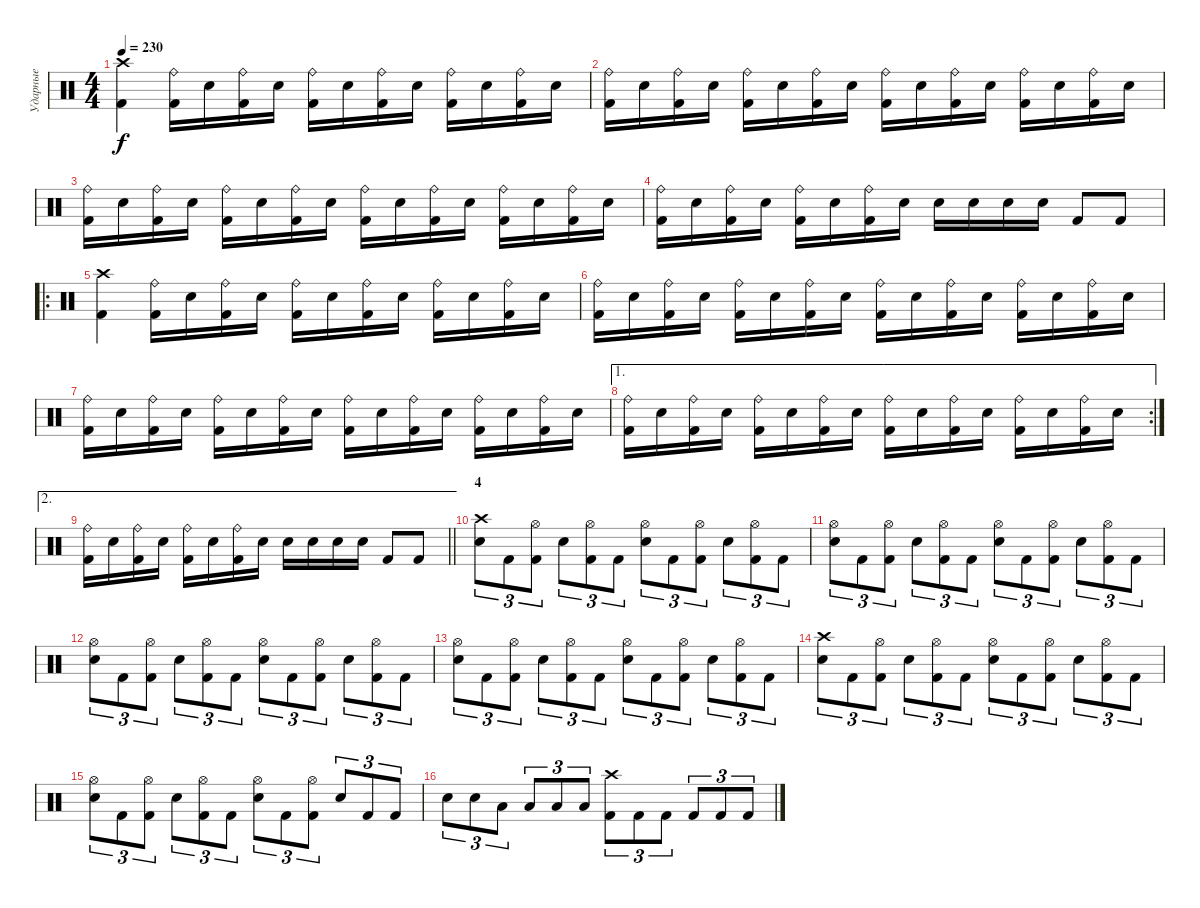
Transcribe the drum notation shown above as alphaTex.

\track ("Ударные" "Ударные") {instrument percussion}
\staff {score}
\articulation defaults
\ts (4 4)
\tempo 230
\clef neutral
\ks c
("Crash high (hit)" "Kick (hit) 2").4{dy f} ("Ride (bell)" "Kick (hit) 2").16 "Snare (hit) 2".16 ("Ride (bell)" "Kick (hit) 2").16 "Snare (hit) 2".16 ("Ride (bell)" "Kick (hit) 2").16 "Snare (hit) 2".16 ("Ride (bell)" "Kick (hit) 2").16 "Snare (hit) 2".16 ("Ride (bell)" "Kick (hit) 2").16 "Snare (hit) 2".16 ("Ride (bell)" "Kick (hit) 2").16 "Snare (hit) 2".16 |
("Ride (bell)" "Kick (hit) 2").16 "Snare (hit) 2".16 ("Ride (bell)" "Kick (hit) 2").16 "Snare (hit) 2".16 ("Ride (bell)" "Kick (hit) 2").16 "Snare (hit) 2".16 ("Ride (bell)" "Kick (hit) 2").16 "Snare (hit) 2".16 ("Ride (bell)" "Kick (hit) 2").16 "Snare (hit) 2".16 ("Ride (bell)" "Kick (hit) 2").16 "Snare (hit) 2".16 ("Ride (bell)" "Kick (hit) 2").16 "Snare (hit) 2".16 ("Ride (bell)" "Kick (hit) 2").16 "Snare (hit) 2".16 |
("Ride (bell)" "Kick (hit) 2").16 "Snare (hit) 2".16 ("Ride (bell)" "Kick (hit) 2").16 "Snare (hit) 2".16 ("Ride (bell)" "Kick (hit) 2").16 "Snare (hit) 2".16 ("Ride (bell)" "Kick (hit) 2").16 "Snare (hit) 2".16 ("Ride (bell)" "Kick (hit) 2").16 "Snare (hit) 2".16 ("Ride (bell)" "Kick (hit) 2").16 "Snare (hit) 2".16 ("Ride (bell)" "Kick (hit) 2").16 "Snare (hit) 2".16 ("Ride (bell)" "Kick (hit) 2").16 "Snare (hit) 2".16 |
("Ride (bell)" "Kick (hit) 2").16 "Snare (hit) 2".16 ("Ride (bell)" "Kick (hit) 2").16 "Snare (hit) 2".16 ("Ride (bell)" "Kick (hit) 2").16 "Snare (hit) 2".16 ("Ride (bell)" "Kick (hit) 2").16 "Snare (hit) 2".16 "Snare (hit) 2".16 "Snare (hit) 2".16 "Snare (hit) 2".16 "Snare (hit) 2".16 "Kick (hit) 2".8 "Kick (hit) 2".8 |
\ro
("Crash high (hit)" "Kick (hit) 2").4 ("Ride (bell)" "Kick (hit) 2").16 "Snare (hit) 2".16 ("Ride (bell)" "Kick (hit) 2").16 "Snare (hit) 2".16 ("Ride (bell)" "Kick (hit) 2").16 "Snare (hit) 2".16 ("Ride (bell)" "Kick (hit) 2").16 "Snare (hit) 2".16 ("Ride (bell)" "Kick (hit) 2").16 "Snare (hit) 2".16 ("Ride (bell)" "Kick (hit) 2").16 "Snare (hit) 2".16 |
("Ride (bell)" "Kick (hit) 2").16 "Snare (hit) 2".16 ("Ride (bell)" "Kick (hit) 2").16 "Snare (hit) 2".16 ("Ride (bell)" "Kick (hit) 2").16 "Snare (hit) 2".16 ("Ride (bell)" "Kick (hit) 2").16 "Snare (hit) 2".16 ("Ride (bell)" "Kick (hit) 2").16 "Snare (hit) 2".16 ("Ride (bell)" "Kick (hit) 2").16 "Snare (hit) 2".16 ("Ride (bell)" "Kick (hit) 2").16 "Snare (hit) 2".16 ("Ride (bell)" "Kick (hit) 2").16 "Snare (hit) 2".16 |
("Ride (bell)" "Kick (hit) 2").16 "Snare (hit) 2".16 ("Ride (bell)" "Kick (hit) 2").16 "Snare (hit) 2".16 ("Ride (bell)" "Kick (hit) 2").16 "Snare (hit) 2".16 ("Ride (bell)" "Kick (hit) 2").16 "Snare (hit) 2".16 ("Ride (bell)" "Kick (hit) 2").16 "Snare (hit) 2".16 ("Ride (bell)" "Kick (hit) 2").16 "Snare (hit) 2".16 ("Ride (bell)" "Kick (hit) 2").16 "Snare (hit) 2".16 ("Ride (bell)" "Kick (hit) 2").16 "Snare (hit) 2".16 |
\ae 1
\rc 2
("Ride (bell)" "Kick (hit) 2").16 "Snare (hit) 2".16 ("Ride (bell)" "Kick (hit) 2").16 "Snare (hit) 2".16 ("Ride (bell)" "Kick (hit) 2").16 "Snare (hit) 2".16 ("Ride (bell)" "Kick (hit) 2").16 "Snare (hit) 2".16 ("Ride (bell)" "Kick (hit) 2").16 "Snare (hit) 2".16 ("Ride (bell)" "Kick (hit) 2").16 "Snare (hit) 2".16 ("Ride (bell)" "Kick (hit) 2").16 "Snare (hit) 2".16 ("Ride (bell)" "Kick (hit) 2").16 "Snare (hit) 2".16 |
\ae 2
\barLineRight lightlight
("Ride (bell)" "Kick (hit) 2").16 "Snare (hit) 2".16 ("Ride (bell)" "Kick (hit) 2").16 "Snare (hit) 2".16 ("Ride (bell)" "Kick (hit) 2").16 "Snare (hit) 2".16 ("Ride (bell)" "Kick (hit) 2").16 "Snare (hit) 2".16 "Snare (hit) 2".16 "Snare (hit) 2".16 "Snare (hit) 2".16 "Snare (hit) 2".16 "Kick (hit) 2".8 "Kick (hit) 2".8 |
\section ("" "4")
("Crash high (hit)" "Snare (hit) 2").8{tu (3 2)} "Kick (hit) 2".8{tu (3 2)} ("Hi-Hat (open)" "Kick (hit) 2").8{tu (3 2)} "Snare (hit) 2".8{tu (3 2)} ("Hi-Hat (open)" "Kick (hit) 2").8{tu (3 2)} "Kick (hit) 2".8{tu (3 2)} ("Hi-Hat (open)" "Snare (hit) 2").8{tu (3 2)} "Kick (hit) 2".8{tu (3 2)} ("Hi-Hat (open)" "Kick (hit) 2").8{tu (3 2)} "Snare (hit) 2".8{tu (3 2)} ("Hi-Hat (open)" "Kick (hit) 2").8{tu (3 2)} "Kick (hit) 2".8{tu (3 2)} |
("Hi-Hat (open)" "Snare (hit) 2").8{tu (3 2)} "Kick (hit) 2".8{tu (3 2)} ("Hi-Hat (open)" "Kick (hit) 2").8{tu (3 2)} "Snare (hit) 2".8{tu (3 2)} ("Hi-Hat (open)" "Kick (hit) 2").8{tu (3 2)} "Kick (hit) 2".8{tu (3 2)} ("Hi-Hat (open)" "Snare (hit) 2").8{tu (3 2)} "Kick (hit) 2".8{tu (3 2)} ("Hi-Hat (open)" "Kick (hit) 2").8{tu (3 2)} "Snare (hit) 2".8{tu (3 2)} ("Hi-Hat (open)" "Kick (hit) 2").8{tu (3 2)} "Kick (hit) 2".8{tu (3 2)} |
("Hi-Hat (open)" "Snare (hit) 2").8{tu (3 2)} "Kick (hit) 2".8{tu (3 2)} ("Hi-Hat (open)" "Kick (hit) 2").8{tu (3 2)} "Snare (hit) 2".8{tu (3 2)} ("Hi-Hat (open)" "Kick (hit) 2").8{tu (3 2)} "Kick (hit) 2".8{tu (3 2)} ("Hi-Hat (open)" "Snare (hit) 2").8{tu (3 2)} "Kick (hit) 2".8{tu (3 2)} ("Hi-Hat (open)" "Kick (hit) 2").8{tu (3 2)} "Snare (hit) 2".8{tu (3 2)} ("Hi-Hat (open)" "Kick (hit) 2").8{tu (3 2)} "Kick (hit) 2".8{tu (3 2)} |
("Hi-Hat (open)" "Snare (hit) 2").8{tu (3 2)} "Kick (hit) 2".8{tu (3 2)} ("Hi-Hat (open)" "Kick (hit) 2").8{tu (3 2)} "Snare (hit) 2".8{tu (3 2)} ("Hi-Hat (open)" "Kick (hit) 2").8{tu (3 2)} "Kick (hit) 2".8{tu (3 2)} ("Hi-Hat (open)" "Snare (hit) 2").8{tu (3 2)} "Kick (hit) 2".8{tu (3 2)} ("Hi-Hat (open)" "Kick (hit) 2").8{tu (3 2)} "Snare (hit) 2".8{tu (3 2)} ("Hi-Hat (open)" "Kick (hit) 2").8{tu (3 2)} "Kick (hit) 2".8{tu (3 2)} |
("Crash high (hit)" "Snare (hit) 2").8{tu (3 2)} "Kick (hit) 2".8{tu (3 2)} ("Hi-Hat (open)" "Kick (hit) 2").8{tu (3 2)} "Snare (hit) 2".8{tu (3 2)} ("Hi-Hat (open)" "Kick (hit) 2").8{tu (3 2)} "Kick (hit) 2".8{tu (3 2)} ("Hi-Hat (open)" "Snare (hit) 2").8{tu (3 2)} "Kick (hit) 2".8{tu (3 2)} ("Hi-Hat (open)" "Kick (hit) 2").8{tu (3 2)} "Snare (hit) 2".8{tu (3 2)} ("Hi-Hat (open)" "Kick (hit) 2").8{tu (3 2)} "Kick (hit) 2".8{tu (3 2)} |
("Hi-Hat (open)" "Snare (hit) 2").8{tu (3 2)} "Kick (hit) 2".8{tu (3 2)} ("Hi-Hat (open)" "Kick (hit) 2").8{tu (3 2)} "Snare (hit) 2".8{tu (3 2)} ("Hi-Hat (open)" "Kick (hit) 2").8{tu (3 2)} "Kick (hit) 2".8{tu (3 2)} ("Hi-Hat (open)" "Snare (hit) 2").8{tu (3 2)} "Kick (hit) 2".8{tu (3 2)} ("Hi-Hat (open)" "Kick (hit) 2").8{tu (3 2)} "Snare (hit) 2".8{tu (3 2)} "Kick (hit) 2".8{tu (3 2)} "Kick (hit) 2".8{tu (3 2)} |
"Snare (hit) 2".8{tu (3 2)} "Snare (hit) 2".8{tu (3 2)} "Low Tom (hit)".8{tu (3 2)} "Low Tom (hit)".8{tu (3 2)} "Low Floor Tom (hit)".8{tu (3 2)} "Low Floor Tom (hit)".8{tu (3 2)} ("Crash high (hit)" "Kick (hit) 2").8{tu (3 2)} "Kick (hit) 2".8{tu (3 2)} "Kick (hit) 2".8{tu (3 2)} "Kick (hit) 2".8{tu (3 2)} "Kick (hit) 2".8{tu (3 2)} "Kick (hit) 2".8{tu (3 2)}
